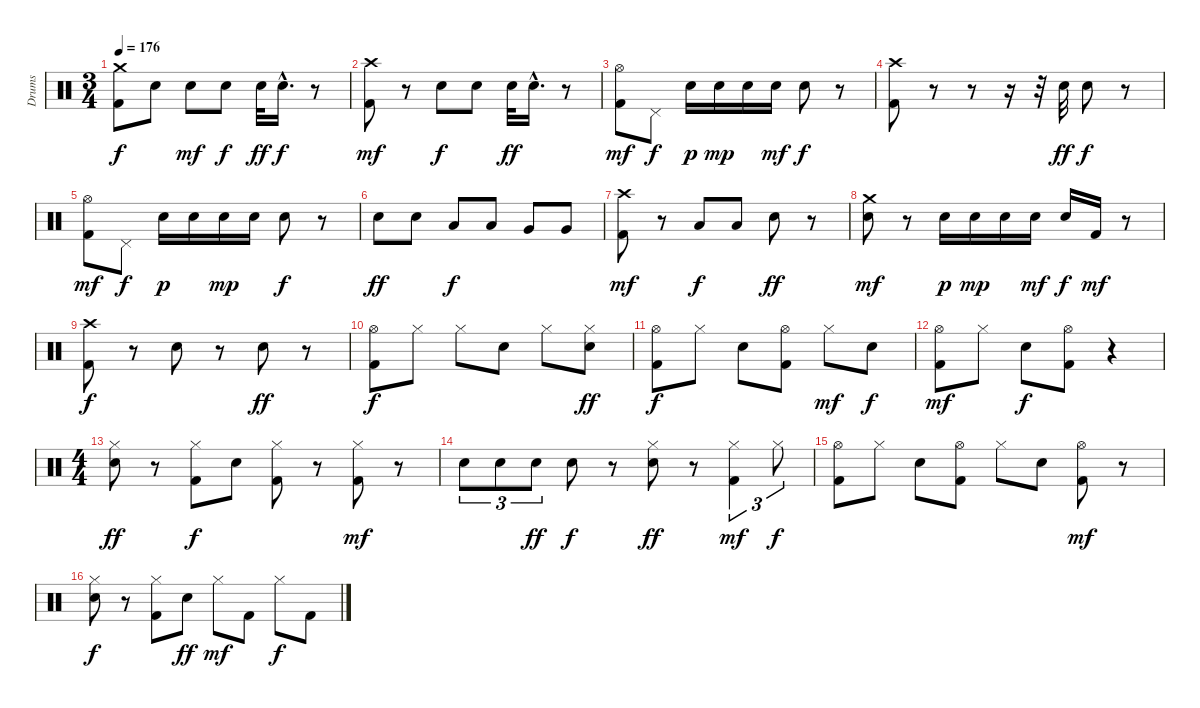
\track ("Drums" "Drums") {instrument percussion}
\staff {score}
\articulation defaults
\ts (3 4)
\tempo 176
\clef neutral
\ks c
("Crash medium (hit)" "Kick (hit) 2").8{dy f} "Snare (hit) 2".8 "Snare (hit) 2".8{dy mf} "Snare (hit) 2".8{dy f} "Snare (hit) 2".32{dy ff} "Snare (hit) 2"{hac}.16{d dy f} r.8 |
("Crash high (hit)" "Kick (hit) 2").8{dy mf} r.8 "Snare (hit) 2".8{dy f} "Snare (hit) 2".8 "Snare (hit) 2".32{dy ff} "Snare (hit) 2"{hac}.16{d} r.8 |
("Hi-Hat (open)" "Kick (hit) 2").8{dy mf} "Pedal Hi-Hat (hit)".8{dy f} "Snare (hit) 2".16{dy p} "Snare (hit) 2".16{dy mp} "Snare (hit) 2".16 "Snare (hit) 2".16{dy mf} "Snare (hit) 2".8{dy f} r.8 |
("Crash high (hit)" "Kick (hit) 2").8 r.8 r.8 r.16 r.32 "Snare (hit) 2".32{dy ff} "Snare (hit) 2".8{dy f} r.8 |
("Hi-Hat (open)" "Kick (hit) 2").8{dy mf} "Pedal Hi-Hat (hit)".8{dy f} "Snare (hit) 2".16{dy p} "Snare (hit) 2".16 "Snare (hit) 2".16{dy mp} "Snare (hit) 2".16 "Snare (hit) 2".8{dy f} r.8 |
"Snare (hit) 2".8{dy ff} "Snare (hit) 2".8 "Low Tom (hit)".8{dy f} "Low Tom (hit)".8 "Very Low Tom (hit)".8 "Very Low Tom (hit)".8 |
("Crash high (hit)" "Kick (hit) 2").8{dy mf} r.8 "Low Floor Tom (hit)".8{dy f} "Low Floor Tom (hit)".8 "Snare (hit) 2".8{dy ff} r.8 |
("Crash medium (hit)" "Snare (hit) 2").8{dy mf} r.8 "Snare (hit) 2".16{dy p} "Snare (hit) 2".16{dy mp} "Snare (hit) 2".16 "Snare (hit) 2".16{dy mf} "Snare (hit) 2".16{dy f} "Kick (hit) 2".16{dy mf} r.8 |
("Crash high (hit)" "Kick (hit) 2").8{dy f} r.8 "Snare (hit) 2".8 r.8 "Snare (hit) 2".8{dy ff} r.8 |
("Hi-Hat (open)" "Kick (hit) 2").8{dy f} "Hi-Hat (closed)".8 "Hi-Hat (closed)".8 "Snare (hit) 2".8 "Hi-Hat (closed)".8 ("Hi-Hat (closed)" "Snare (hit) 2").8{dy ff} |
("Hi-Hat (open)" "Kick (hit) 2").8{dy f} "Hi-Hat (closed)".8 "Snare (hit) 2".8 ("Hi-Hat (open)" "Kick (hit) 2").8 "Hi-Hat (closed)".8{dy mf} "Snare (hit) 2".8{dy f} |
("Hi-Hat (open)" "Kick (hit) 2").8{dy mf} "Hi-Hat (closed)".8 "Snare (hit) 2".8{dy f} ("Hi-Hat (open)" "Kick (hit) 2").8 r.4 |
\ts (4 4)
("Hi-Hat (closed)" "Snare (hit) 2").8{dy ff} r.8 ("Hi-Hat (closed)" "Kick (hit) 2").8{dy f} "Snare (hit) 2".8 ("Hi-Hat (closed)" "Kick (hit) 2").8 r.8 ("Hi-Hat (closed)" "Kick (hit) 2").8{dy mf} r.8 |
"Snare (hit) 2".8{tu (3 2)} "Snare (hit) 2".8{tu (3 2)} "Snare (hit) 2".8{tu (3 2) dy ff} "Snare (hit) 2".8{dy f} r.8 ("Hi-Hat (closed)" "Snare (hit) 2").8{dy ff} r.8 ("Hi-Hat (closed)" "Kick (hit) 2").4{tu (3 2) dy mf} "Hi-Hat (closed)".8{tu (3 2) dy f} |
("Hi-Hat (open)" "Kick (hit) 2").8 "Hi-Hat (closed)".8 "Snare (hit) 2".8 ("Hi-Hat (open)" "Kick (hit) 2").8 "Hi-Hat (closed)".8 "Snare (hit) 2".8 ("Hi-Hat (open)" "Kick (hit) 2").8{dy mf} r.8 |
("Hi-Hat (closed)" "Snare (hit) 2").8{dy f} r.8 ("Hi-Hat (closed)" "Kick (hit) 2").8 "Snare (hit) 2".8{dy ff} "Hi-Hat (closed)".8{dy mf} "Kick (hit) 2".8 "Hi-Hat (closed)".8{dy f} "Kick (hit) 2".8
